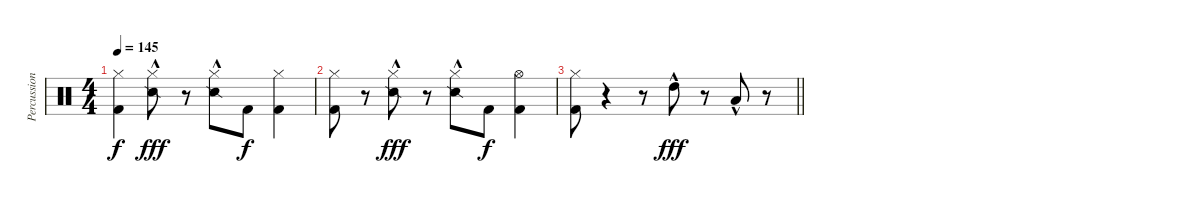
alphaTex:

\track ("Percussion 1" "Percussion") {instrument percussion}
\staff {score}
\articulation defaults
\ts (4 4)
\tempo 145
\clef neutral
\ks c
("Hi-Hat (closed)" "Kick (hit) 2").4{dy f} ("Hi-Hat (closed)" "Snare (side stick) 2"{hac}).8{dy fff} r.8 ("Hi-Hat (closed)" "Snare (side stick) 2"{hac}).8 "Kick (hit) 2".8{dy f} ("Hi-Hat (closed)" "Kick (hit) 2").4 |
("Hi-Hat (closed)" "Kick (hit) 2").8 r.8 ("Hi-Hat (closed)" "Snare (side stick) 2"{hac}).8{dy fff} r.8 ("Hi-Hat (closed)" "Snare (side stick) 2"{hac}).8 "Kick (hit) 2".8{dy f} ("Hi-Hat (open)" "Kick (hit) 2").4 |
\barLineRight lightlight
("Hi-Hat (closed)" "Kick (hit) 2").8 r.4 r.8 "High Tom (hit)"{hac}.8{dy fff} r.8 "Low Tom (hit)"{hac}.8 r.8
